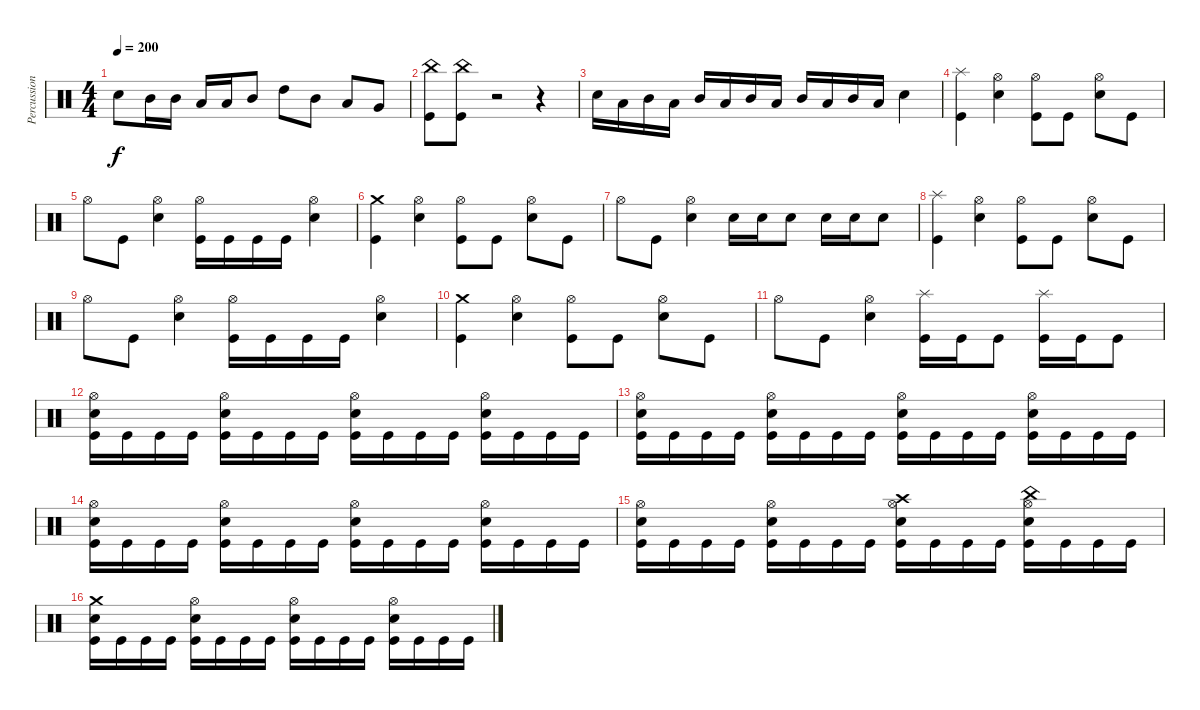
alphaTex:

\track ("Percussion" "Percussion") {instrument percussion}
\staff {score}
\articulation defaults
\ts (4 4)
\tempo 200
\clef neutral
\ks c "Electric Snare (hit)".8{dy f} "Mid Tom (hit)".16 "Mid Tom (hit)".16 "Low Tom (hit)".16 "Low Tom (hit)".16 "Mid Tom (hit)".8 "High Tom (hit)".8 "Mid Tom (hit)".8 "Low Tom (hit)".8 "Very Low Tom (hit)".8
|
("China (hit)" "Kick (hit)").8 ("China (hit)" "Kick (hit)").8 r.2 r.4 |
"Electric Snare (hit)".16 "Low Tom (hit)".16 "Mid Tom (hit)".16 "Low Tom (hit)".16 "Mid Tom (hit)".16 "Low Tom (hit)".16 "Mid Tom (hit)".16 "Low Tom (hit)".16 "Mid Tom (hit)".16 "Low Tom (hit)".16 "Mid Tom (hit)".16 "Low Tom (hit)".16 "Electric Snare (hit)".4 |
("Splash (hit)" "Kick (hit)").4 ("Hi-Hat (open)" "Electric Snare (hit)").4 ("Hi-Hat (open)" "Kick (hit)").8 "Kick (hit)".8 ("Hi-Hat (open)" "Electric Snare (hit)").8 "Kick (hit)".8 |
"Hi-Hat (open)".8 "Kick (hit)".8 ("Hi-Hat (open)" "Electric Snare (hit)").4 ("Hi-Hat (open)" "Kick (hit)").16 "Kick (hit)".16 "Kick (hit)".16 "Kick (hit)".16 ("Hi-Hat (open)" "Electric Snare (hit)").4 |
("Crash medium (hit)" "Kick (hit)").4 ("Hi-Hat (open)" "Electric Snare (hit)").4 ("Hi-Hat (open)" "Kick (hit)").8 "Kick (hit)".8 ("Hi-Hat (open)" "Electric Snare (hit)").8 "Kick (hit)".8 |
"Hi-Hat (open)".8 "Kick (hit)".8 ("Hi-Hat (open)" "Electric Snare (hit)").4 "Electric Snare (hit)".16 "Electric Snare (hit)".16 "Electric Snare (hit)".8 "Electric Snare (hit)".16 "Electric Snare (hit)".16 "Electric Snare (hit)".8 |
("Splash (hit)" "Kick (hit)").4 ("Hi-Hat (open)" "Electric Snare (hit)").4 ("Hi-Hat (open)" "Kick (hit)").8 "Kick (hit)".8 ("Hi-Hat (open)" "Electric Snare (hit)").8 "Kick (hit)".8 |
"Hi-Hat (open)".8 "Kick (hit)".8 ("Hi-Hat (open)" "Electric Snare (hit)").4 ("Hi-Hat (open)" "Kick (hit)").16 "Kick (hit)".16 "Kick (hit)".16 "Kick (hit)".16 ("Hi-Hat (open)" "Electric Snare (hit)").4 |
("Crash medium (hit)" "Kick (hit)").4 ("Hi-Hat (open)" "Electric Snare (hit)").4 ("Hi-Hat (open)" "Kick (hit)").8 "Kick (hit)".8 ("Hi-Hat (open)" "Electric Snare (hit)").8 "Kick (hit)".8 |
"Hi-Hat (open)".8 "Kick (hit)".8 ("Hi-Hat (open)" "Electric Snare (hit)").4 ("Splash (hit)" "Kick (hit)").16 "Kick (hit)".16 "Kick (hit)".8 ("Splash (hit)" "Kick (hit)").16 "Kick (hit)".16 "Kick (hit)".8 |
("Hi-Hat (open)" "Electric Snare (hit)" "Kick (hit)").16 "Kick (hit)".16 "Kick (hit)".16 "Kick (hit)".16 ("Hi-Hat (open)" "Electric Snare (hit)" "Kick (hit)").16 "Kick (hit)".16 "Kick (hit)".16 "Kick (hit)".16 ("Hi-Hat (open)" "Electric Snare (hit)" "Kick (hit)").16 "Kick (hit)".16 "Kick (hit)".16 "Kick (hit)".16 ("Hi-Hat (open)" "Electric Snare (hit)" "Kick (hit)").16 "Kick (hit)".16 "Kick (hit)".16 "Kick (hit)".16 |
("Hi-Hat (open)" "Electric Snare (hit)" "Kick (hit)").16 "Kick (hit)".16 "Kick (hit)".16 "Kick (hit)".16 ("Hi-Hat (open)" "Electric Snare (hit)" "Kick (hit)").16 "Kick (hit)".16 "Kick (hit)".16 "Kick (hit)".16 ("Hi-Hat (open)" "Electric Snare (hit)" "Kick (hit)").16 "Kick (hit)".16 "Kick (hit)".16 "Kick (hit)".16 ("Hi-Hat (open)" "Electric Snare (hit)" "Kick (hit)").16 "Kick (hit)".16 "Kick (hit)".16 "Kick (hit)".16 |
("Hi-Hat (open)" "Electric Snare (hit)" "Kick (hit)").16 "Kick (hit)".16 "Kick (hit)".16 "Kick (hit)".16 ("Hi-Hat (open)" "Electric Snare (hit)" "Kick (hit)").16 "Kick (hit)".16 "Kick (hit)".16 "Kick (hit)".16 ("Hi-Hat (open)" "Electric Snare (hit)" "Kick (hit)").16 "Kick (hit)".16 "Kick (hit)".16 "Kick (hit)".16 ("Hi-Hat (open)" "Electric Snare (hit)" "Kick (hit)").16 "Kick (hit)".16 "Kick (hit)".16 "Kick (hit)".16 |
("Hi-Hat (open)" "Electric Snare (hit)" "Kick (hit)").16 "Kick (hit)".16 "Kick (hit)".16 "Kick (hit)".16 ("Hi-Hat (open)" "Electric Snare (hit)" "Kick (hit)").16 "Kick (hit)".16 "Kick (hit)".16 "Kick (hit)".16 ("Crash high (hit)" "Hi-Hat (open)" "Electric Snare (hit)" "Kick (hit)").16 "Kick (hit)".16 "Kick (hit)".16 "Kick (hit)".16 ("China (hit)" "Hi-Hat (open)" "Electric Snare (hit)" "Kick (hit)").16 "Kick (hit)".16 "Kick (hit)".16 "Kick (hit)".16 |
("Crash medium (hit)" "Electric Snare (hit)" "Kick (hit)").16 "Kick (hit)".16 "Kick (hit)".16 "Kick (hit)".16 ("Hi-Hat (open)" "Electric Snare (hit)" "Kick (hit)").16 "Kick (hit)".16 "Kick (hit)".16 "Kick (hit)".16 ("Hi-Hat (open)" "Electric Snare (hit)" "Kick (hit)").16 "Kick (hit)".16 "Kick (hit)".16 "Kick (hit)".16 ("Hi-Hat (open)" "Electric Snare (hit)" "Kick (hit)").16 "Kick (hit)".16 "Kick (hit)".16 "Kick (hit)".16
